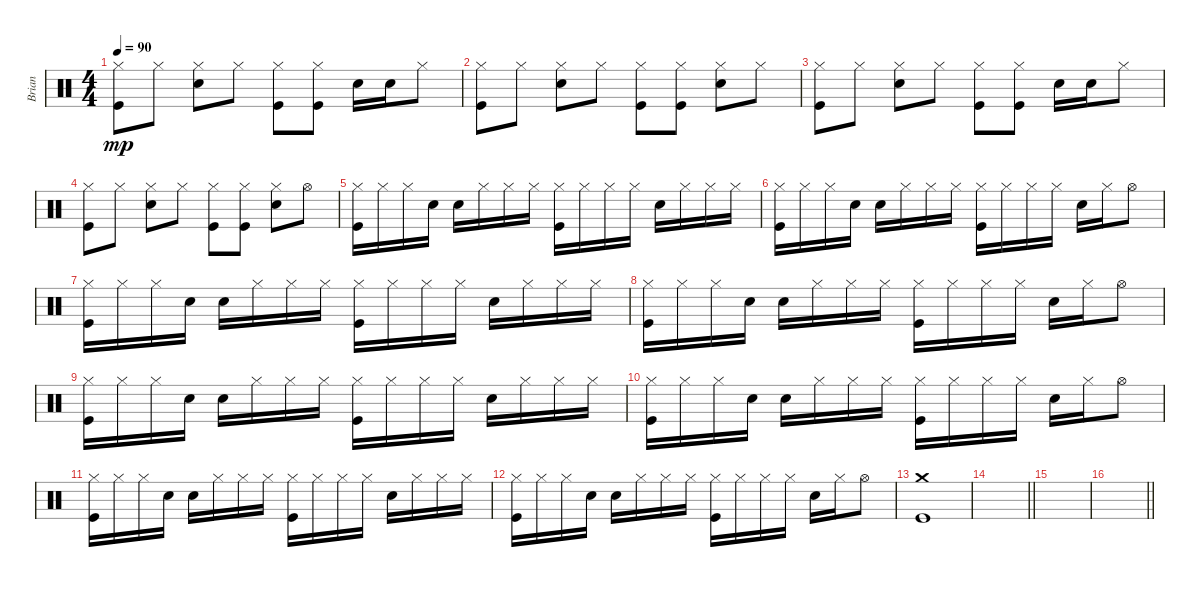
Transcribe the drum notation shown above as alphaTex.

\track ("Brian" "Brian") {instrument percussion}
\staff {score}
\articulation defaults
\ts (4 4)
\tempo 90
\clef neutral
\ks c
("Hi-Hat (closed)" "Kick (hit)").8{dy mp} "Hi-Hat (closed)".8 ("Hi-Hat (closed)" "Snare (hit) 2").8 "Hi-Hat (closed)".8 ("Hi-Hat (closed)" "Kick (hit)").8 ("Hi-Hat (closed)" "Kick (hit)").8 "Snare (hit) 2".16 "Snare (hit) 2".16 "Hi-Hat (closed)".8 |
("Hi-Hat (closed)" "Kick (hit)").8 "Hi-Hat (closed)".8 ("Hi-Hat (closed)" "Snare (hit) 2").8 "Hi-Hat (closed)".8 ("Hi-Hat (closed)" "Kick (hit)").8 ("Hi-Hat (closed)" "Kick (hit)").8 ("Hi-Hat (closed)" "Snare (hit) 2").8 "Hi-Hat (closed)".8 |
("Hi-Hat (closed)" "Kick (hit)").8 "Hi-Hat (closed)".8 ("Hi-Hat (closed)" "Snare (hit) 2").8 "Hi-Hat (closed)".8 ("Hi-Hat (closed)" "Kick (hit)").8 ("Hi-Hat (closed)" "Kick (hit)").8 "Snare (hit) 2".16 "Snare (hit) 2".16 "Hi-Hat (closed)".8 |
("Hi-Hat (closed)" "Kick (hit)").8 "Hi-Hat (closed)".8 ("Hi-Hat (closed)" "Snare (hit) 2").8 "Hi-Hat (closed)".8 ("Hi-Hat (closed)" "Kick (hit)").8 ("Hi-Hat (closed)" "Kick (hit)").8 ("Hi-Hat (closed)" "Snare (hit) 2").8 "Hi-Hat (open)".8 |
("Hi-Hat (closed)" "Kick (hit)").16 "Hi-Hat (closed)".16 "Hi-Hat (closed)".16 "Snare (hit) 2".16 "Snare (hit) 2".16 "Hi-Hat (closed)".16 "Hi-Hat (closed)".16 "Hi-Hat (closed)".16 ("Hi-Hat (closed)" "Kick (hit)").16 "Hi-Hat (closed)".16 "Hi-Hat (closed)".16 "Hi-Hat (closed)".16 "Snare (hit) 2".16 "Hi-Hat (closed)".16 "Hi-Hat (closed)".16 "Hi-Hat (closed)".16 |
("Hi-Hat (closed)" "Kick (hit)").16 "Hi-Hat (closed)".16 "Hi-Hat (closed)".16 "Snare (hit) 2".16 "Snare (hit) 2".16 "Hi-Hat (closed)".16 "Hi-Hat (closed)".16 "Hi-Hat (closed)".16 ("Hi-Hat (closed)" "Kick (hit)").16 "Hi-Hat (closed)".16 "Hi-Hat (closed)".16 "Hi-Hat (closed)".16 "Snare (hit) 2".16 "Hi-Hat (closed)".16 "Hi-Hat (open)".8 |
("Hi-Hat (closed)" "Kick (hit)").16 "Hi-Hat (closed)".16 "Hi-Hat (closed)".16 "Snare (hit) 2".16 "Snare (hit) 2".16 "Hi-Hat (closed)".16 "Hi-Hat (closed)".16 "Hi-Hat (closed)".16 ("Hi-Hat (closed)" "Kick (hit)").16 "Hi-Hat (closed)".16 "Hi-Hat (closed)".16 "Hi-Hat (closed)".16 "Snare (hit) 2".16 "Hi-Hat (closed)".16 "Hi-Hat (closed)".16 "Hi-Hat (closed)".16 |
("Hi-Hat (closed)" "Kick (hit)").16 "Hi-Hat (closed)".16 "Hi-Hat (closed)".16 "Snare (hit) 2".16 "Snare (hit) 2".16 "Hi-Hat (closed)".16 "Hi-Hat (closed)".16 "Hi-Hat (closed)".16 ("Hi-Hat (closed)" "Kick (hit)").16 "Hi-Hat (closed)".16 "Hi-Hat (closed)".16 "Hi-Hat (closed)".16 "Snare (hit) 2".16 "Hi-Hat (closed)".16 "Hi-Hat (open)".8 |
("Hi-Hat (closed)" "Kick (hit)").16 "Hi-Hat (closed)".16 "Hi-Hat (closed)".16 "Snare (hit) 2".16 "Snare (hit) 2".16 "Hi-Hat (closed)".16 "Hi-Hat (closed)".16 "Hi-Hat (closed)".16 ("Hi-Hat (closed)" "Kick (hit)").16 "Hi-Hat (closed)".16 "Hi-Hat (closed)".16 "Hi-Hat (closed)".16 "Snare (hit) 2".16 "Hi-Hat (closed)".16 "Hi-Hat (closed)".16 "Hi-Hat (closed)".16 |
("Hi-Hat (closed)" "Kick (hit)").16 "Hi-Hat (closed)".16 "Hi-Hat (closed)".16 "Snare (hit) 2".16 "Snare (hit) 2".16 "Hi-Hat (closed)".16 "Hi-Hat (closed)".16 "Hi-Hat (closed)".16 ("Hi-Hat (closed)" "Kick (hit)").16 "Hi-Hat (closed)".16 "Hi-Hat (closed)".16 "Hi-Hat (closed)".16 "Snare (hit) 2".16 "Hi-Hat (closed)".16 "Hi-Hat (open)".8 |
("Hi-Hat (closed)" "Kick (hit)").16 "Hi-Hat (closed)".16 "Hi-Hat (closed)".16 "Snare (hit) 2".16 "Snare (hit) 2".16 "Hi-Hat (closed)".16 "Hi-Hat (closed)".16 "Hi-Hat (closed)".16 ("Hi-Hat (closed)" "Kick (hit)").16 "Hi-Hat (closed)".16 "Hi-Hat (closed)".16 "Hi-Hat (closed)".16 "Snare (hit) 2".16 "Hi-Hat (closed)".16 "Hi-Hat (closed)".16 "Hi-Hat (closed)".16 |
("Hi-Hat (closed)" "Kick (hit)").16 "Hi-Hat (closed)".16 "Hi-Hat (closed)".16 "Snare (hit) 2".16 "Snare (hit) 2".16 "Hi-Hat (closed)".16 "Hi-Hat (closed)".16 "Hi-Hat (closed)".16 ("Hi-Hat (closed)" "Kick (hit)").16 "Hi-Hat (closed)".16 "Hi-Hat (closed)".16 "Hi-Hat (closed)".16 "Snare (hit) 2".16 "Hi-Hat (closed)".16 "Hi-Hat (open)".8 |
("Crash medium (hit)" "Kick (hit)").1 |
\barLineRight lightlight
|
|
\barLineRight lightlight
